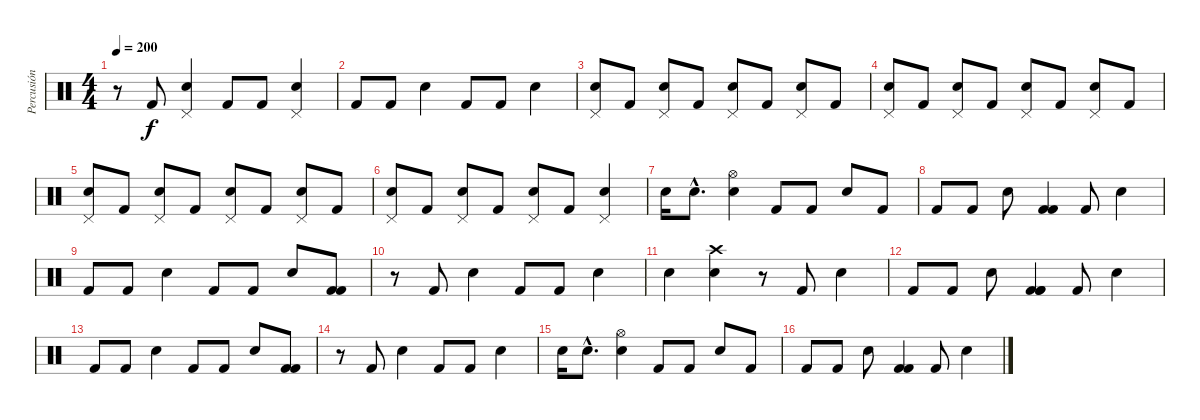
\track ("Percusión" "Percusión") {instrument percussion}
\staff {score}
\articulation defaults
\ts (4 4)
\tempo 200
\clef neutral
\ks c
r.8{dy f} "Kick (hit) 2".8 ("Electric Snare (hit)" "Pedal Hi-Hat (hit)").4 "Kick (hit) 2".8 "Kick (hit) 2".8 ("Electric Snare (hit)" "Pedal Hi-Hat (hit)").4 |
"Kick (hit) 2".8 "Kick (hit) 2".8 "Electric Snare (hit)".4 "Kick (hit) 2".8 "Kick (hit) 2".8 "Electric Snare (hit)".4 |
("Electric Snare (hit)" "Pedal Hi-Hat (hit)").8 "Kick (hit) 2".8 ("Electric Snare (hit)" "Pedal Hi-Hat (hit)").8 "Kick (hit) 2".8 ("Electric Snare (hit)" "Pedal Hi-Hat (hit)").8 "Kick (hit) 2".8 ("Electric Snare (hit)" "Pedal Hi-Hat (hit)").8 "Kick (hit) 2".8 |
("Electric Snare (hit)" "Pedal Hi-Hat (hit)").8 "Kick (hit) 2".8 ("Electric Snare (hit)" "Pedal Hi-Hat (hit)").8 "Kick (hit) 2".8 ("Electric Snare (hit)" "Pedal Hi-Hat (hit)").8 "Kick (hit) 2".8 ("Electric Snare (hit)" "Pedal Hi-Hat (hit)").8 "Kick (hit) 2".8 |
("Electric Snare (hit)" "Pedal Hi-Hat (hit)").8 "Kick (hit) 2".8 ("Electric Snare (hit)" "Pedal Hi-Hat (hit)").8 "Kick (hit) 2".8 ("Electric Snare (hit)" "Pedal Hi-Hat (hit)").8 "Kick (hit) 2".8 ("Electric Snare (hit)" "Pedal Hi-Hat (hit)").8 "Kick (hit) 2".8 |
("Electric Snare (hit)" "Pedal Hi-Hat (hit)").8 "Kick (hit) 2".8 ("Electric Snare (hit)" "Pedal Hi-Hat (hit)").8 "Kick (hit) 2".8 ("Electric Snare (hit)" "Pedal Hi-Hat (hit)").8 "Kick (hit) 2".8 ("Electric Snare (hit)" "Pedal Hi-Hat (hit)").4 |
"Electric Snare (hit)".16 "Electric Snare (hit)"{hac}.8{d} ("Electric Snare (hit)" "Hi-Hat (open)").4 "Kick (hit) 2".8 "Kick (hit) 2".8 "Electric Snare (hit)".8 "Kick (hit) 2".8 |
"Kick (hit) 2".8 "Kick (hit) 2".8 "Electric Snare (hit)".8 ("Kick (hit) 2" "Kick (hit) 2").4 "Kick (hit) 2".8 "Electric Snare (hit)".4 |
"Kick (hit) 2".8 "Kick (hit) 2".8 "Electric Snare (hit)".4 "Kick (hit) 2".8 "Kick (hit) 2".8 "Electric Snare (hit)".8 ("Kick (hit) 2" "Kick (hit) 2").8 |
r.8 "Kick (hit) 2".8 "Electric Snare (hit)".4 "Kick (hit) 2".8 "Kick (hit) 2".8 "Electric Snare (hit)".4 |
"Electric Snare (hit)".4 ("Electric Snare (hit)" "Crash high (hit)").4 r.8 "Kick (hit) 2".8 "Electric Snare (hit)".4 |
"Kick (hit) 2".8 "Kick (hit) 2".8 "Electric Snare (hit)".8 ("Kick (hit) 2" "Kick (hit) 2" "Kick (hit) 2").4 "Kick (hit) 2".8 "Electric Snare (hit)".4 |
"Kick (hit) 2".8 "Kick (hit) 2".8 "Electric Snare (hit)".4 "Kick (hit) 2".8 "Kick (hit) 2".8 "Electric Snare (hit)".8 ("Kick (hit) 2" "Kick (hit) 2").8 |
r.8 "Kick (hit) 2".8 "Electric Snare (hit)".4 "Kick (hit) 2".8 "Kick (hit) 2".8 "Electric Snare (hit)".4 |
"Electric Snare (hit)".16 "Electric Snare (hit)"{hac}.8{d} ("Electric Snare (hit)" "Hi-Hat (open)").4 "Kick (hit) 2".8 "Kick (hit) 2".8 "Electric Snare (hit)".8 "Kick (hit) 2".8 |
"Kick (hit) 2".8 "Kick (hit) 2".8 "Electric Snare (hit)".8 ("Kick (hit) 2" "Kick (hit) 2").4 "Kick (hit) 2".8 "Electric Snare (hit)".4
